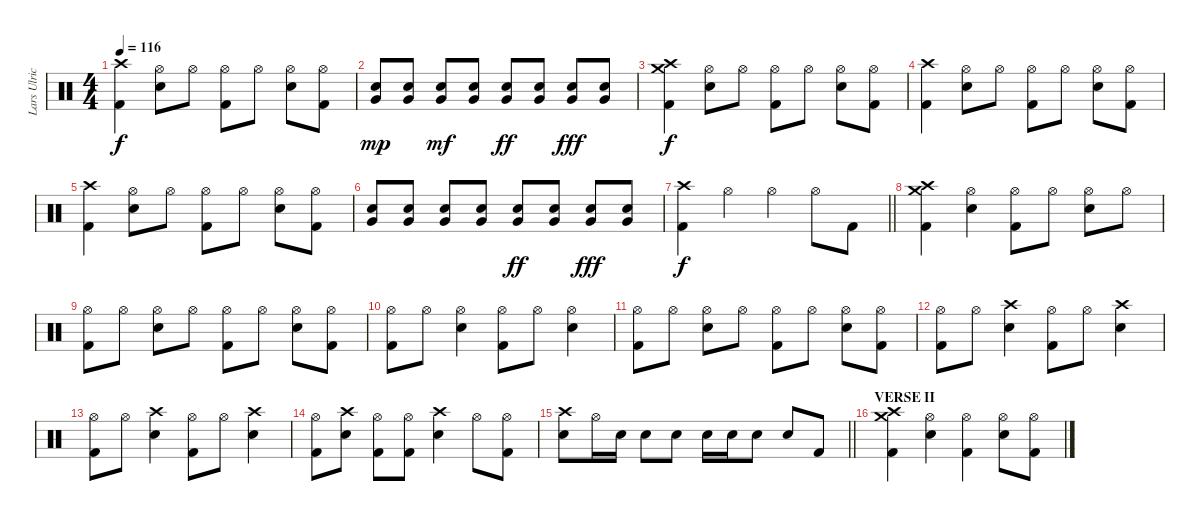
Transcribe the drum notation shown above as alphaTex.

\track ("Lars Ulrich - drums" "Lars Ulric") {instrument percussion}
\staff {score}
\articulation defaults
\ts (4 4)
\tempo 116
\clef neutral
\ks c
("Crash high (hit)" "Kick (hit) 2").4{dy f} ("Hi-Hat (open)" "Snare (hit) 2").8 "Hi-Hat (open)".8 ("Hi-Hat (open)" "Kick (hit) 2").8 "Hi-Hat (open)".8 ("Hi-Hat (open)" "Snare (hit) 2").8 ("Hi-Hat (open)" "Kick (hit) 2").8 |
("Very Low Tom (hit)" "Snare (hit) 2").8{dy mp} ("Very Low Tom (hit)" "Snare (hit) 2").8 ("Very Low Tom (hit)" "Snare (hit) 2").8{dy mf} ("Very Low Tom (hit)" "Snare (hit) 2").8 ("Very Low Tom (hit)" "Snare (hit) 2").8{dy ff} ("Very Low Tom (hit)" "Snare (hit) 2").8 ("Very Low Tom (hit)" "Snare (hit) 2").8{dy fff} ("Very Low Tom (hit)" "Snare (hit) 2").8 |
("Crash high (hit)" "Crash medium (hit)" "Kick (hit) 2").4{dy f} ("Hi-Hat (open)" "Snare (hit) 2").8 "Hi-Hat (open)".8 ("Hi-Hat (open)" "Kick (hit) 2").8 "Hi-Hat (open)".8 ("Hi-Hat (open)" "Snare (hit) 2").8 ("Hi-Hat (open)" "Kick (hit) 2").8 |
("Crash high (hit)" "Kick (hit) 2").4 ("Hi-Hat (open)" "Snare (hit) 2").8 "Hi-Hat (open)".8 ("Hi-Hat (open)" "Kick (hit) 2").8 "Hi-Hat (open)".8 ("Hi-Hat (open)" "Snare (hit) 2").8 ("Hi-Hat (open)" "Kick (hit) 2").8 |
("Crash high (hit)" "Kick (hit) 2").4 ("Hi-Hat (open)" "Snare (hit) 2").8 "Hi-Hat (open)".8 ("Hi-Hat (open)" "Kick (hit) 2").8 "Hi-Hat (open)".8 ("Hi-Hat (open)" "Snare (hit) 2").8 ("Hi-Hat (open)" "Kick (hit) 2").8 |
("Very Low Tom (hit)" "Snare (hit) 2").8 ("Very Low Tom (hit)" "Snare (hit) 2").8 ("Very Low Tom (hit)" "Snare (hit) 2").8 ("Very Low Tom (hit)" "Snare (hit) 2").8 ("Very Low Tom (hit)" "Snare (hit) 2").8{dy ff} ("Very Low Tom (hit)" "Snare (hit) 2").8 ("Very Low Tom (hit)" "Snare (hit) 2").8{dy fff} ("Very Low Tom (hit)" "Snare (hit) 2").8 |
\barLineRight lightlight
("Crash high (hit)" "Kick (hit) 2").4{dy f} "Hi-Hat (open)".4 "Hi-Hat (open)".4 "Hi-Hat (open)".8 "Kick (hit) 2".8 |
\section ("" "")
("Crash high (hit)" "Crash medium (hit)" "Kick (hit) 2").4 ("Hi-Hat (open)" "Snare (hit) 2").4 ("Hi-Hat (open)" "Kick (hit) 2").8 "Hi-Hat (open)".8 ("Hi-Hat (open)" "Snare (hit) 2").8 "Hi-Hat (open)".8 |
("Hi-Hat (open)" "Kick (hit) 2").8 "Hi-Hat (open)".8 ("Hi-Hat (open)" "Snare (hit) 2").8 "Hi-Hat (open)".8 ("Hi-Hat (open)" "Kick (hit) 2").8 "Hi-Hat (open)".8 ("Hi-Hat (open)" "Snare (hit) 2").8 ("Hi-Hat (open)" "Kick (hit) 2").8 |
("Hi-Hat (open)" "Kick (hit) 2").8 "Hi-Hat (open)".8 ("Hi-Hat (open)" "Snare (hit) 2").4 ("Hi-Hat (open)" "Kick (hit) 2").8 "Hi-Hat (open)".8 ("Hi-Hat (open)" "Snare (hit) 2").4 |
("Hi-Hat (open)" "Kick (hit) 2").8 "Hi-Hat (open)".8 ("Hi-Hat (open)" "Snare (hit) 2").8 "Hi-Hat (open)".8 ("Hi-Hat (open)" "Kick (hit) 2").8 "Hi-Hat (open)".8 ("Hi-Hat (open)" "Snare (hit) 2").8 ("Hi-Hat (open)" "Kick (hit) 2").8 |
("Hi-Hat (open)" "Kick (hit) 2").8 "Hi-Hat (open)".8 ("Crash high (hit)" "Snare (hit) 2").4 ("Hi-Hat (open)" "Kick (hit) 2").8 "Hi-Hat (open)".8 ("Crash high (hit)" "Snare (hit) 2").4 |
("Hi-Hat (open)" "Kick (hit) 2").8 "Hi-Hat (open)".8 ("Crash high (hit)" "Snare (hit) 2").4 ("Hi-Hat (open)" "Kick (hit) 2").8 "Hi-Hat (open)".8 ("Crash high (hit)" "Snare (hit) 2").4 |
("Hi-Hat (open)" "Kick (hit) 2").8 ("Crash high (hit)" "Snare (hit) 2").8 ("Hi-Hat (open)" "Kick (hit) 2").8 ("Hi-Hat (open)" "Kick (hit) 2").8 ("Crash high (hit)" "Snare (hit) 2").4 "Hi-Hat (open)".8 ("Hi-Hat (open)" "Kick (hit) 2").8 |
\barLineRight lightlight
("Crash high (hit)" "Snare (hit) 2").8 "Hi-Hat (open)".16 "Snare (hit) 2".16 "Snare (hit) 2".8 "Snare (hit) 2".8 "Snare (hit) 2".16 "Snare (hit) 2".16 "Snare (hit) 2".8 "Snare (hit) 2".8 "Kick (hit) 2".8 |
\section ("" "VERSE II")
("Crash high (hit)" "Crash medium (hit)" "Kick (hit) 2").4 ("Hi-Hat (open)" "Snare (hit) 2").4 ("Hi-Hat (open)" "Kick (hit) 2").4 ("Hi-Hat (open)" "Snare (hit) 2").8 ("Hi-Hat (open)" "Kick (hit) 2").8
